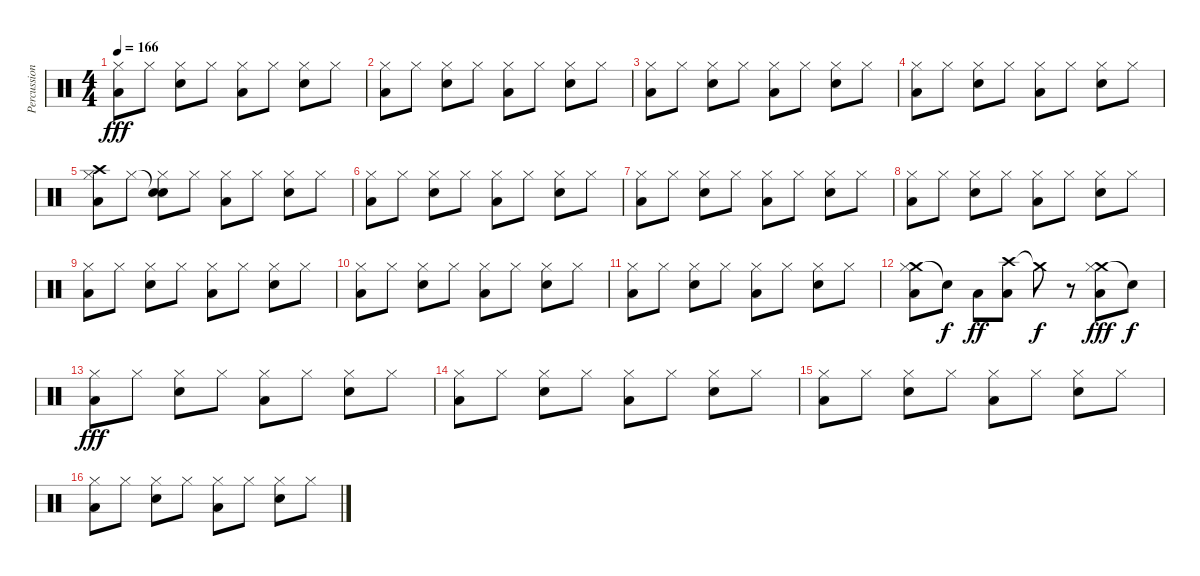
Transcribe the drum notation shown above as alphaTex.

\track ("Percussions" "Percussion") {instrument percussion}
\staff {score}
\articulation defaults
\ts (4 4)
\tempo 166
\clef neutral
\ks c
("Low Tom (hit)" "Hi-Hat (closed)").8{dy fff} "Hi-Hat (closed)".8 ("Snare (hit) 2" "Hi-Hat (closed)").8 "Hi-Hat (closed)".8 ("Low Tom (hit)" "Hi-Hat (closed)").8 "Hi-Hat (closed)".8 ("Snare (hit) 2" "Hi-Hat (closed)").8 "Hi-Hat (closed)".8 |
("Low Tom (hit)" "Hi-Hat (closed)").8 "Hi-Hat (closed)".8 ("Snare (hit) 2" "Hi-Hat (closed)").8 "Hi-Hat (closed)".8 ("Low Tom (hit)" "Hi-Hat (closed)").8 "Hi-Hat (closed)".8 ("Snare (hit) 2" "Hi-Hat (closed)").8 "Hi-Hat (closed)".8 |
("Low Tom (hit)" "Hi-Hat (closed)").8 "Hi-Hat (closed)".8 ("Snare (hit) 2" "Hi-Hat (closed)").8 "Hi-Hat (closed)".8 ("Low Tom (hit)" "Hi-Hat (closed)").8 "Hi-Hat (closed)".8 ("Snare (hit) 2" "Hi-Hat (closed)").8 "Hi-Hat (closed)".8 |
("Low Tom (hit)" "Hi-Hat (closed)").8 "Hi-Hat (closed)".8 ("Snare (hit) 2" "Hi-Hat (closed)").8 "Hi-Hat (closed)".8 ("Low Tom (hit)" "Hi-Hat (closed)").8 "Hi-Hat (closed)".8 ("Snare (hit) 2" "Hi-Hat (closed)").8 "Hi-Hat (closed)".8 |
("Crash high (hit)" "Low Tom (hit)" "Hi-Hat (closed)").8 "Hi-Hat (closed)".8 ("Snare (hit)"{t} "Snare (hit) 2" "Hi-Hat (closed)").8 "Hi-Hat (closed)".8 ("Low Tom (hit)" "Hi-Hat (closed)").8 "Hi-Hat (closed)".8 ("Snare (hit) 2" "Hi-Hat (closed)").8 "Hi-Hat (closed)".8 |
("Low Tom (hit)" "Hi-Hat (closed)").8 "Hi-Hat (closed)".8 ("Snare (hit) 2" "Hi-Hat (closed)").8 "Hi-Hat (closed)".8 ("Low Tom (hit)" "Hi-Hat (closed)").8 "Hi-Hat (closed)".8 ("Snare (hit) 2" "Hi-Hat (closed)").8 "Hi-Hat (closed)".8 |
("Low Tom (hit)" "Hi-Hat (closed)").8 "Hi-Hat (closed)".8 ("Snare (hit) 2" "Hi-Hat (closed)").8 "Hi-Hat (closed)".8 ("Low Tom (hit)" "Hi-Hat (closed)").8 "Hi-Hat (closed)".8 ("Snare (hit) 2" "Hi-Hat (closed)").8 "Hi-Hat (closed)".8 |
("Low Tom (hit)" "Hi-Hat (closed)").8 "Hi-Hat (closed)".8 ("Snare (hit) 2" "Hi-Hat (closed)").8 "Hi-Hat (closed)".8 ("Low Tom (hit)" "Hi-Hat (closed)").8 "Hi-Hat (closed)".8 ("Snare (hit) 2" "Hi-Hat (closed)").8 "Hi-Hat (closed)".8 |
("Low Tom (hit)" "Hi-Hat (closed)").8 "Hi-Hat (closed)".8 ("Snare (hit) 2" "Hi-Hat (closed)").8 "Hi-Hat (closed)".8 ("Low Tom (hit)" "Hi-Hat (closed)").8 "Hi-Hat (closed)".8 ("Snare (hit) 2" "Hi-Hat (closed)").8 "Hi-Hat (closed)".8 |
("Low Tom (hit)" "Hi-Hat (closed)").8 "Hi-Hat (closed)".8 ("Snare (hit) 2" "Hi-Hat (closed)").8 "Hi-Hat (closed)".8 ("Low Tom (hit)" "Hi-Hat (closed)").8 "Hi-Hat (closed)".8 ("Snare (hit) 2" "Hi-Hat (closed)").8 "Hi-Hat (closed)".8 |
("Low Tom (hit)" "Hi-Hat (closed)").8 "Hi-Hat (closed)".8 ("Snare (hit) 2" "Hi-Hat (closed)").8 "Hi-Hat (closed)".8 ("Low Tom (hit)" "Hi-Hat (closed)").8 "Hi-Hat (closed)".8 ("Snare (hit) 2" "Hi-Hat (closed)").8 "Hi-Hat (closed)".8 |
("Crash medium (hit)" "Low Tom (hit)" "Hi-Hat (closed)").8 "Snare (hit)"{t}.8{dy f} "Low Tom (hit)".8{dy ff} ("Crash high (hit)" "Low Tom (hit)").8 "Crash medium (hit)"{t}.8{dy f} r.8 ("Crash medium (hit)" "Low Tom (hit)" "Hi-Hat (closed)").8{dy fff} "Snare (hit)"{t}.8{dy f} |
("Low Tom (hit)" "Hi-Hat (closed)").8{dy fff} "Hi-Hat (closed)".8 ("Snare (hit) 2" "Hi-Hat (closed)").8 "Hi-Hat (closed)".8 ("Low Tom (hit)" "Hi-Hat (closed)").8 "Hi-Hat (closed)".8 ("Snare (hit) 2" "Hi-Hat (closed)").8 "Hi-Hat (closed)".8 |
("Low Tom (hit)" "Hi-Hat (closed)").8 "Hi-Hat (closed)".8 ("Snare (hit) 2" "Hi-Hat (closed)").8 "Hi-Hat (closed)".8 ("Low Tom (hit)" "Hi-Hat (closed)").8 "Hi-Hat (closed)".8 ("Snare (hit) 2" "Hi-Hat (closed)").8 "Hi-Hat (closed)".8 |
("Low Tom (hit)" "Hi-Hat (closed)").8 "Hi-Hat (closed)".8 ("Snare (hit) 2" "Hi-Hat (closed)").8 "Hi-Hat (closed)".8 ("Low Tom (hit)" "Hi-Hat (closed)").8 "Hi-Hat (closed)".8 ("Snare (hit) 2" "Hi-Hat (closed)").8 "Hi-Hat (closed)".8 |
("Low Tom (hit)" "Hi-Hat (closed)").8 "Hi-Hat (closed)".8 ("Snare (hit) 2" "Hi-Hat (closed)").8 "Hi-Hat (closed)".8 ("Low Tom (hit)" "Hi-Hat (closed)").8 "Hi-Hat (closed)".8 ("Snare (hit) 2" "Hi-Hat (closed)").8 "Hi-Hat (closed)".8
